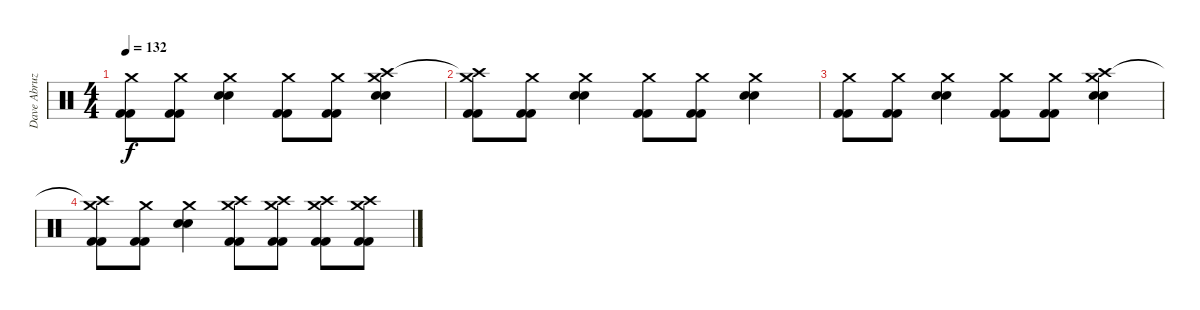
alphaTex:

\track ("Dave Abruzzesse" "Dave Abruz") {instrument percussion}
\staff {score}
\articulation defaults
\ts (4 4)
\tempo 132
\clef neutral
\ks c
("Crash medium (hit)" "Kick (hit) 2" "Kick (hit) 2").8{dy f} ("Crash medium (hit)" "Kick (hit) 2" "Kick (hit) 2").8 ("Crash medium (hit)" "Snare (hit) 2" "Snare (hit) 2").4 ("Crash medium (hit)" "Kick (hit) 2" "Kick (hit) 2").8 ("Crash medium (hit)" "Kick (hit) 2" "Kick (hit) 2").8 ("Crash high (hit)" "Crash medium (hit)" "Snare (hit) 2" "Snare (hit) 2").4 |
("Crash high (hit)"{t} "Crash medium (hit)" "Kick (hit) 2" "Kick (hit) 2").8 ("Crash medium (hit)" "Kick (hit) 2" "Kick (hit) 2").8 ("Crash medium (hit)" "Snare (hit) 2" "Snare (hit) 2").4 ("Crash medium (hit)" "Kick (hit) 2" "Kick (hit) 2").8 ("Crash medium (hit)" "Kick (hit) 2" "Kick (hit) 2").8 ("Crash medium (hit)" "Snare (hit) 2" "Snare (hit) 2").4 |
("Crash medium (hit)" "Kick (hit) 2" "Kick (hit) 2").8 ("Crash medium (hit)" "Kick (hit) 2" "Kick (hit) 2").8 ("Crash medium (hit)" "Snare (hit) 2" "Snare (hit) 2").4 ("Crash medium (hit)" "Kick (hit) 2" "Kick (hit) 2").8 ("Crash medium (hit)" "Kick (hit) 2" "Kick (hit) 2").8 ("Crash high (hit)" "Crash medium (hit)" "Snare (hit) 2" "Snare (hit) 2").4 |
("Crash high (hit)"{t} "Crash medium (hit)" "Kick (hit) 2" "Kick (hit) 2").8 ("Crash medium (hit)" "Kick (hit) 2" "Kick (hit) 2").8 ("Crash medium (hit)" "Snare (hit) 2" "Snare (hit) 2").4 ("Crash high (hit)" "Crash medium (hit)" "Kick (hit) 2" "Kick (hit) 2").8 ("Crash high (hit)" "Crash medium (hit)" "Kick (hit) 2" "Kick (hit) 2").8 ("Crash high (hit)" "Crash medium (hit)" "Kick (hit) 2" "Kick (hit) 2").8 ("Crash high (hit)" "Crash medium (hit)" "Kick (hit) 2" "Kick (hit) 2").8
